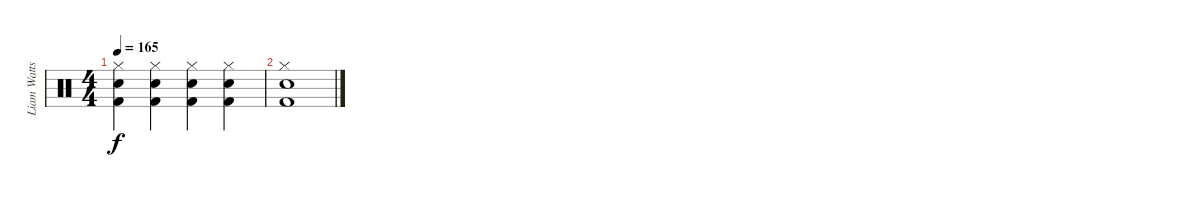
\track ("Liam Watts (Percussion)" "Liam Watts") {instrument percussion}
\staff {score}
\articulation defaults
\ts (4 4)
\tempo 165
\clef neutral
\ks c
("Hi-Hat (closed)" "Snare (hit) 2" "Kick (hit) 2").4{dy f} ("Hi-Hat (closed)" "Snare (hit) 2" "Kick (hit) 2").4 ("Hi-Hat (closed)" "Snare (hit) 2" "Kick (hit) 2").4 ("Hi-Hat (closed)" "Snare (hit) 2" "Kick (hit) 2").4 |
("Hi-Hat (closed)" "Snare (hit) 2" "Kick (hit) 2").1
